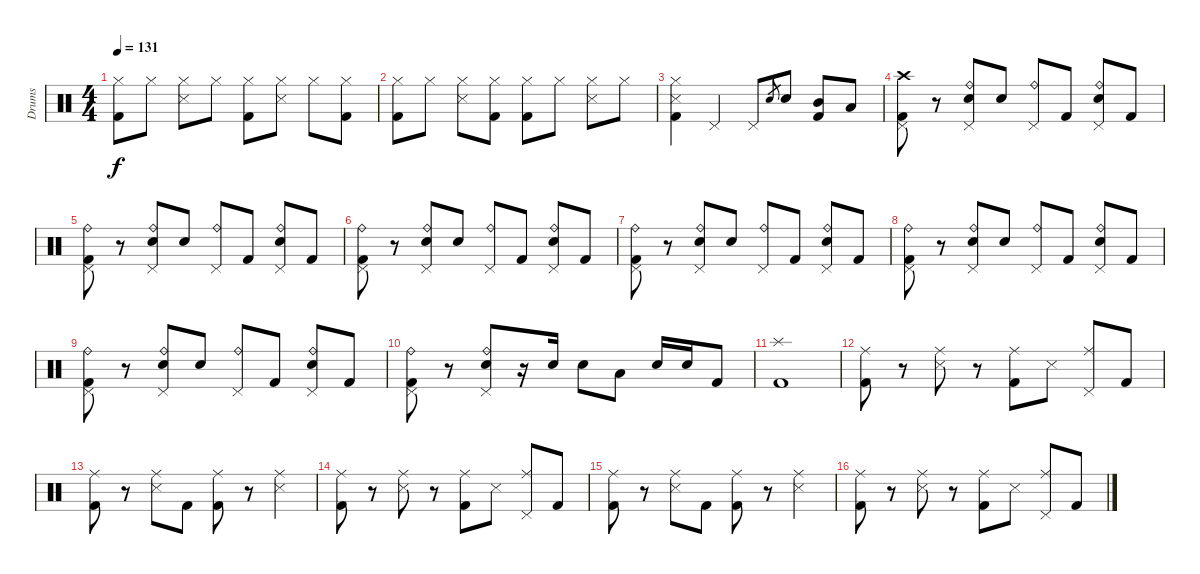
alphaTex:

\track ("Drums" "Drums") {instrument percussion}
\staff {score}
\articulation defaults
\ts (4 4)
\tempo 131
\clef neutral
\ks c
("Hi-Hat (closed)" "Kick (hit) 2").8{dy f} "Hi-Hat (closed)".8 ("Snare (side stick) 3" "Hi-Hat (closed)").8 "Hi-Hat (closed)".8 ("Hi-Hat (closed)" "Kick (hit) 2").8 ("Snare (side stick) 3" "Hi-Hat (closed)").8 "Hi-Hat (closed)".8 ("Hi-Hat (closed)" "Kick (hit) 2").8 |
("Hi-Hat (closed)" "Kick (hit) 2").8 "Hi-Hat (closed)".8 ("Snare (side stick) 3" "Hi-Hat (closed)").8 ("Hi-Hat (closed)" "Kick (hit) 2").8 ("Hi-Hat (closed)" "Kick (hit) 2").8 "Hi-Hat (closed)".8 ("Snare (side stick) 3" "Hi-Hat (closed)").8 "Hi-Hat (closed)".8 |
("Snare (side stick) 3" "Hi-Hat (closed)" "Kick (hit) 2").4 "Pedal Hi-Hat (hit)".4 "Pedal Hi-Hat (hit)".8 "Snare (hit) 2".8{gr} "Snare (hit) 2".8 ("Mid Tom (hit)" "Kick (hit) 2").8 "Low Tom (hit)".8 |
("Crash high (hit)" "Pedal Hi-Hat (hit)" "Kick (hit) 2").8 r.8 ("Ride (bell)" "Pedal Hi-Hat (hit)" "Snare (hit) 2").8 "Snare (hit) 2".8 ("Ride (bell)" "Pedal Hi-Hat (hit)").8 "Kick (hit) 2".8 ("Ride (bell)" "Pedal Hi-Hat (hit)" "Snare (hit) 2").8 "Kick (hit) 2".8 |
("Ride (bell)" "Pedal Hi-Hat (hit)" "Kick (hit) 2").8 r.8 ("Ride (bell)" "Pedal Hi-Hat (hit)" "Snare (hit) 2").8 "Snare (hit) 2".8 ("Ride (bell)" "Pedal Hi-Hat (hit)").8 "Kick (hit) 2".8 ("Ride (bell)" "Pedal Hi-Hat (hit)" "Snare (hit) 2").8 "Kick (hit) 2".8 |
("Ride (bell)" "Pedal Hi-Hat (hit)" "Kick (hit) 2").8 r.8 ("Ride (bell)" "Pedal Hi-Hat (hit)" "Snare (hit) 2").8 "Snare (hit) 2".8 ("Ride (bell)" "Pedal Hi-Hat (hit)").8 "Kick (hit) 2".8 ("Ride (bell)" "Pedal Hi-Hat (hit)" "Snare (hit) 2").8 "Kick (hit) 2".8 |
("Ride (bell)" "Pedal Hi-Hat (hit)" "Kick (hit) 2").8 r.8 ("Ride (bell)" "Pedal Hi-Hat (hit)" "Snare (hit) 2").8 "Snare (hit) 2".8 ("Ride (bell)" "Pedal Hi-Hat (hit)").8 "Kick (hit) 2".8 ("Ride (bell)" "Pedal Hi-Hat (hit)" "Snare (hit) 2").8 "Kick (hit) 2".8 |
("Ride (bell)" "Pedal Hi-Hat (hit)" "Kick (hit) 2").8 r.8 ("Ride (bell)" "Pedal Hi-Hat (hit)" "Snare (hit) 2").8 "Snare (hit) 2".8 ("Ride (bell)" "Pedal Hi-Hat (hit)").8 "Kick (hit) 2".8 ("Ride (bell)" "Pedal Hi-Hat (hit)" "Snare (hit) 2").8 "Kick (hit) 2".8 |
("Ride (bell)" "Pedal Hi-Hat (hit)" "Kick (hit) 2").8 r.8 ("Ride (bell)" "Pedal Hi-Hat (hit)" "Snare (hit) 2").8 "Snare (hit) 2".8 ("Ride (bell)" "Pedal Hi-Hat (hit)").8 "Kick (hit) 2".8 ("Ride (bell)" "Pedal Hi-Hat (hit)" "Snare (hit) 2").8 "Kick (hit) 2".8 |
("Ride (bell)" "Pedal Hi-Hat (hit)" "Kick (hit) 2").8 r.8 ("Ride (bell)" "Pedal Hi-Hat (hit)" "Snare (hit) 2").8 r.16 "Snare (hit) 2".16 "Snare (hit) 2".8 "Low Tom (hit)".8 "Snare (hit) 2".16 "Snare (hit) 2".16 "Kick (hit) 2".8 |
("Splash (hit)" "Kick (hit) 2").1 |
("Ride (middle)" "Kick (hit) 2").8 r.8 ("Ride (middle)" "Snare (side stick) 3").8 r.8 ("Ride (middle)" "Kick (hit) 2").8 "Snare (side stick) 3".8 ("Ride (middle)" "Pedal Hi-Hat (hit)").8 "Kick (hit) 2".8 |
("Ride (middle)" "Kick (hit) 2").8 r.8 ("Ride (middle)" "Snare (side stick) 3").8 "Kick (hit) 2".8 ("Ride (middle)" "Kick (hit) 2").8 r.8 ("Ride (middle)" "Snare (side stick) 3").4 |
("Ride (middle)" "Kick (hit) 2").8 r.8 ("Ride (middle)" "Snare (side stick) 3").8 r.8 ("Ride (middle)" "Kick (hit) 2").8 "Snare (side stick) 3".8 ("Ride (middle)" "Pedal Hi-Hat (hit)").8 "Kick (hit) 2".8 |
("Ride (middle)" "Kick (hit) 2").8 r.8 ("Ride (middle)" "Snare (side stick) 3").8 "Kick (hit) 2".8 ("Ride (middle)" "Kick (hit) 2").8 r.8 ("Ride (middle)" "Snare (side stick) 3").4 |
("Ride (middle)" "Kick (hit) 2").8 r.8 ("Ride (middle)" "Snare (side stick) 3").8 r.8 ("Ride (middle)" "Kick (hit) 2").8 "Snare (side stick) 3".8 ("Ride (middle)" "Pedal Hi-Hat (hit)").8 "Kick (hit) 2".8
